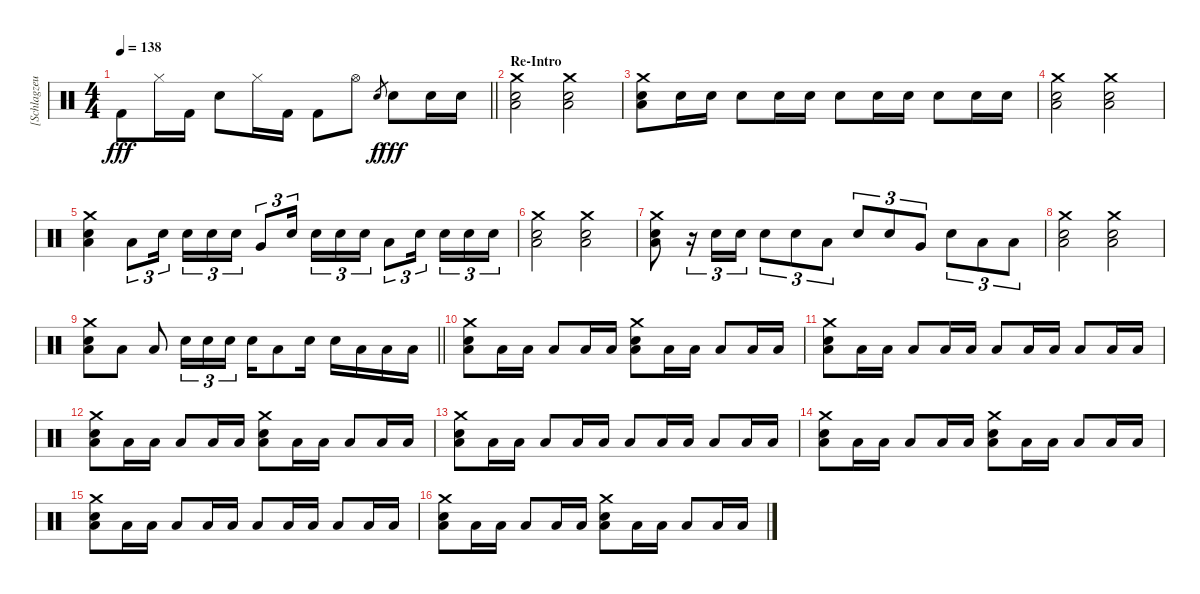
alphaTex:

\track ("[Schlagzeug]" "[Schlagzeu") {instrument percussion}
\staff {score}
\articulation defaults
\ts (4 4)
\tempo 138
\clef neutral
\barLineRight lightlight
\ks c "Kick (hit) 2".8{dy fff} "Hi-Hat (closed)".16 "Kick (hit) 2".16 "Electric Snare (hit)".8 "Hi-Hat (closed)".16 "Kick (hit) 2".16 "Kick (hit) 2".8 "Hi-Hat (open)".8 "Electric Snare (hit)".8{gr dy f} "Electric Snare (hit)".8{dy fff} "Electric Snare (hit)".16 "Electric Snare (hit)".16
|
\section ("" "Re-Intro")
("Low Floor Tom (hit)" "Electric Snare (hit)" "Crash medium (hit)").2 ("Low Floor Tom (hit)" "Electric Snare (hit)" "Crash medium (hit)").2 |
("Low Floor Tom (hit)" "Electric Snare (hit)" "Crash medium (hit)").8 "Electric Snare (hit)".16 "Electric Snare (hit)".16 "Electric Snare (hit)".8 "Electric Snare (hit)".16 "Electric Snare (hit)".16 "Electric Snare (hit)".8 "Electric Snare (hit)".16 "Electric Snare (hit)".16 "Electric Snare (hit)".8 "Electric Snare (hit)".16 "Electric Snare (hit)".16 |
("Low Floor Tom (hit)" "Electric Snare (hit)" "Crash medium (hit)").2 ("Low Floor Tom (hit)" "Electric Snare (hit)" "Crash medium (hit)").2 |
("Low Floor Tom (hit)" "Electric Snare (hit)" "Crash medium (hit)").4 "Low Tom (hit)".8{tu (3 2)} "Electric Snare (hit)".16{tu (3 2) beam splitsecondary} "Electric Snare (hit)".16{tu (3 2)} "Electric Snare (hit)".16{tu (3 2)} "Electric Snare (hit)".16{tu (3 2)} "Very Low Tom (hit)".8{tu (3 2)} "Electric Snare (hit)".16{tu (3 2) beam splitsecondary} "Electric Snare (hit)".16{tu (3 2)} "Electric Snare (hit)".16{tu (3 2)} "Electric Snare (hit)".16{tu (3 2)} "Low Floor Tom (hit)".8{tu (3 2)} "Electric Snare (hit)".16{tu (3 2) beam splitsecondary} "Electric Snare (hit)".16{tu (3 2)} "Electric Snare (hit)".16{tu (3 2)} "Electric Snare (hit)".16{tu (3 2)} |
("Low Floor Tom (hit)" "Electric Snare (hit)" "Crash medium (hit)").2 ("Low Floor Tom (hit)" "Electric Snare (hit)" "Crash medium (hit)").2 |
("Low Floor Tom (hit)" "Electric Snare (hit)" "Crash medium (hit)").8 r.16{tu (3 2)} "Electric Snare (hit)".16{tu (3 2)} "Electric Snare (hit)".16{tu (3 2)} "Electric Snare (hit)".8{tu (3 2)} "Electric Snare (hit)".8{tu (3 2)} "Low Tom (hit)".8{tu (3 2)} "Electric Snare (hit)".8{tu (3 2)} "Electric Snare (hit)".8{tu (3 2)} "Very Low Tom (hit)".8{tu (3 2)} "Electric Snare (hit)".8{tu (3 2)} "Low Floor Tom (hit)".8{tu (3 2)} "Low Floor Tom (hit)".8{tu (3 2)} |
("Low Floor Tom (hit)" "Electric Snare (hit)" "Crash medium (hit)").2 ("Low Floor Tom (hit)" "Electric Snare (hit)" "Crash medium (hit)").2 |
\barLineRight lightlight
("Low Floor Tom (hit)" "Electric Snare (hit)" "Crash medium (hit)").8 "Low Floor Tom (hit)".8 "Low Floor Tom (hit)".8 "Electric Snare (hit)".16{tu (3 2)} "Electric Snare (hit)".16{tu (3 2)} "Electric Snare (hit)".16{tu (3 2)} "Electric Snare (hit)".16 "Low Floor Tom (hit)".8 "Electric Snare (hit)".16 "Electric Snare (hit)".16 "Low Floor Tom (hit)".16 "Low Floor Tom (hit)".16 "Low Floor Tom (hit)".16 |
("Low Floor Tom (hit)" "Electric Snare (hit)" "Crash medium (hit)").8 "Low Floor Tom (hit)".16 "Low Floor Tom (hit)".16 "Low Tom (hit)".8 "Low Floor Tom (hit)".16 "Low Floor Tom (hit)".16 ("Low Floor Tom (hit)" "Electric Snare (hit)" "Crash medium (hit)").8 "Low Floor Tom (hit)".16 "Low Floor Tom (hit)".16 "Low Tom (hit)".8 "Low Floor Tom (hit)".16 "Low Floor Tom (hit)".16 |
("Low Floor Tom (hit)" "Electric Snare (hit)" "Crash medium (hit)").8 "Low Floor Tom (hit)".16 "Low Floor Tom (hit)".16 "Low Floor Tom (hit)".8 "Low Floor Tom (hit)".16 "Low Floor Tom (hit)".16 "Low Tom (hit)".8 "Low Floor Tom (hit)".16 "Low Floor Tom (hit)".16 "Low Tom (hit)".8 "Low Floor Tom (hit)".16 "Low Floor Tom (hit)".16 |
("Low Floor Tom (hit)" "Electric Snare (hit)" "Crash medium (hit)").8 "Low Floor Tom (hit)".16 "Low Floor Tom (hit)".16 "Low Tom (hit)".8 "Low Floor Tom (hit)".16 "Low Floor Tom (hit)".16 ("Low Floor Tom (hit)" "Electric Snare (hit)" "Crash medium (hit)").8 "Low Floor Tom (hit)".16 "Low Floor Tom (hit)".16 "Low Tom (hit)".8 "Low Floor Tom (hit)".16 "Low Floor Tom (hit)".16 |
("Low Floor Tom (hit)" "Electric Snare (hit)" "Crash medium (hit)").8 "Low Floor Tom (hit)".16 "Low Floor Tom (hit)".16 "Low Floor Tom (hit)".8 "Low Floor Tom (hit)".16 "Low Floor Tom (hit)".16 "Low Tom (hit)".8 "Low Floor Tom (hit)".16 "Low Floor Tom (hit)".16 "Low Tom (hit)".8 "Low Floor Tom (hit)".16 "Low Floor Tom (hit)".16 |
("Low Floor Tom (hit)" "Electric Snare (hit)" "Crash medium (hit)").8 "Low Floor Tom (hit)".16 "Low Floor Tom (hit)".16 "Low Tom (hit)".8 "Low Floor Tom (hit)".16 "Low Floor Tom (hit)".16 ("Low Floor Tom (hit)" "Electric Snare (hit)" "Crash medium (hit)").8 "Low Floor Tom (hit)".16 "Low Floor Tom (hit)".16 "Low Tom (hit)".8 "Low Floor Tom (hit)".16 "Low Floor Tom (hit)".16 |
("Low Floor Tom (hit)" "Electric Snare (hit)" "Crash medium (hit)").8 "Low Floor Tom (hit)".16 "Low Floor Tom (hit)".16 "Low Floor Tom (hit)".8 "Low Floor Tom (hit)".16 "Low Floor Tom (hit)".16 "Low Tom (hit)".8 "Low Floor Tom (hit)".16 "Low Floor Tom (hit)".16 "Low Tom (hit)".8 "Low Floor Tom (hit)".16 "Low Floor Tom (hit)".16 |
("Low Floor Tom (hit)" "Electric Snare (hit)" "Crash medium (hit)").8 "Low Floor Tom (hit)".16 "Low Floor Tom (hit)".16 "Low Tom (hit)".8 "Low Floor Tom (hit)".16 "Low Floor Tom (hit)".16 ("Low Floor Tom (hit)" "Electric Snare (hit)" "Crash medium (hit)").8 "Low Floor Tom (hit)".16 "Low Floor Tom (hit)".16 "Low Tom (hit)".8 "Low Floor Tom (hit)".16 "Low Floor Tom (hit)".16
